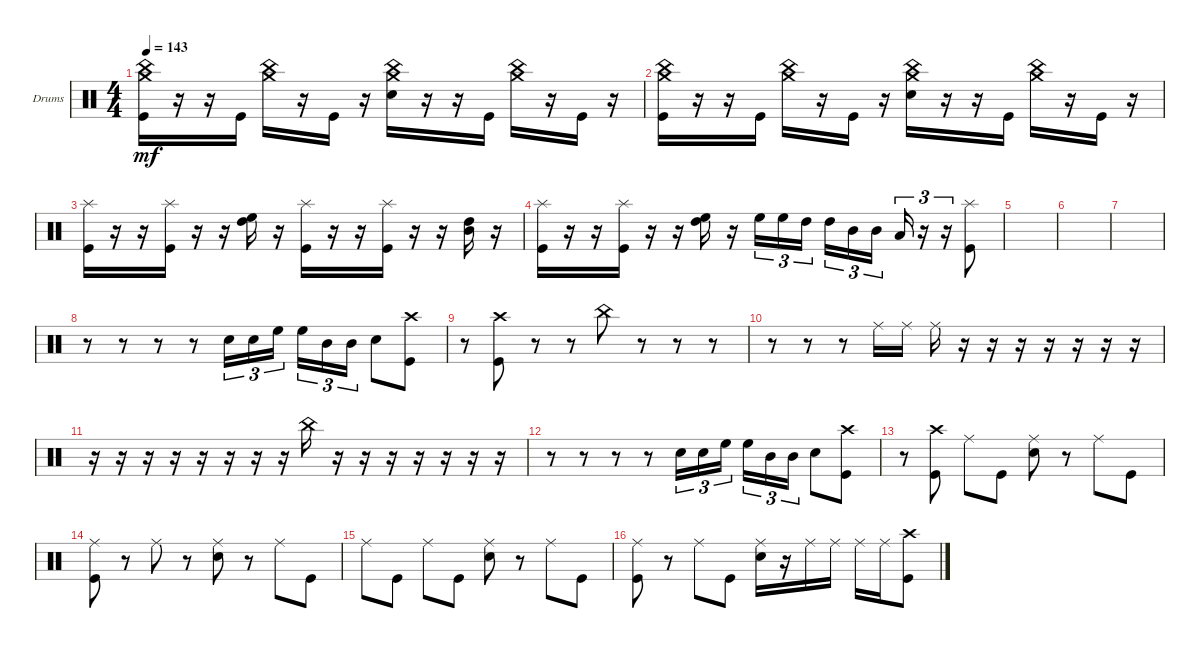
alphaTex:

\bracketExtendMode groupsimilarinstruments
\firstSystemTrackNameOrientation horizontal
\otherSystemsTrackNameOrientation horizontal
\track ("death drumz" "Drums") {instrument percussion}
\staff {score}
\articulation defaults
\ts (4 4)
\tempo 143
\clef neutral
\ks c
("Kick (hit)" "China (hit)" "Crash medium (hit)").16{dy mf} r.16 r.16 "Kick (hit)".16 ("China (hit)" "Crash medium (hit)").16 r.16 "Kick (hit)".16 r.16 ("Snare (hit) 2" "China (hit)" "Crash medium (hit)").16 r.16 r.16 "Kick (hit)".16 ("China (hit)" "Crash medium (hit)").16 r.16 "Kick (hit)".16 r.16 |
("Kick (hit)" "China (hit)" "Crash medium (hit)").16 r.16 r.16 "Kick (hit)".16 ("China (hit)" "Crash medium (hit)").16 r.16 "Kick (hit)".16 r.16 ("Snare (hit) 2" "China (hit)" "Crash medium (hit)").16 r.16 r.16 "Kick (hit)".16 ("China (hit)" "Crash medium (hit)").16 r.16 "Kick (hit)".16 r.16 |
("Kick (hit)" "Splash (hit)").16 r.16 r.16 ("Kick (hit)" "Splash (hit)").16 r.16 r.16 ("High Floor Tom (hit)" "High Tom (hit)").16 r.16 ("Splash (hit)" "Kick (hit)").16 r.16 r.16 ("Kick (hit)" "Splash (hit)").16 r.16 r.16 ("High Tom (hit)" "Mid Tom (hit)").16 r.16 |
("Kick (hit)" "Splash (hit)").16 r.16 r.16 ("Kick (hit)" "Splash (hit)").16 r.16 r.16 ("High Floor Tom (hit)" "High Tom (hit)").16 r.16 "High Floor Tom (hit)".16{tu (3 2)} "High Floor Tom (hit)".16{tu (3 2)} "High Tom (hit)".16{tu (3 2)} "High Tom (hit)".16{tu (3 2)} "Mid Tom (hit)".16{tu (3 2)} "Mid Tom (hit)".16{tu (3 2)} "Low Tom (hit)".16{tu (3 2)} r.16{tu (3 2)} r.16{tu (3 2)} ("Kick (hit)" "Splash (hit)").8 |
|
|
|
r.8 r.8 r.8 r.8 "Snare (hit) 2".16{tu (3 2)} "Snare (hit) 2".16{tu (3 2)} "High Floor Tom (hit)".16{tu (3 2)} "High Floor Tom (hit)".16{tu (3 2)} "Mid Tom (hit)".16{tu (3 2)} "Mid Tom (hit)".16{tu (3 2)} "Snare (hit) 2".8 ("Kick (hit)" "Crash high (hit)").8 |
r.8 ("Kick (hit)" "Crash high (hit)").8 r.8 r.8 "China (hit)".8 r.8 r.8 r.8 |
r.8 r.8 r.8 "Ride (middle)".16 "Ride (middle)".16 "Ride (middle)".16 r.16 r.16 r.16 r.16 r.16 r.16 r.16 |
r.16 r.16 r.16 r.16 r.16 r.16 r.16 r.16 "China (hit)".16 r.16 r.16 r.16 r.16 r.16 r.16 r.16 |
r.8 r.8 r.8 r.8 "Snare (hit) 2".16{tu (3 2)} "Snare (hit) 2".16{tu (3 2)} "High Floor Tom (hit)".16{tu (3 2)} "High Floor Tom (hit)".16{tu (3 2)} "Mid Tom (hit)".16{tu (3 2)} "Mid Tom (hit)".16{tu (3 2)} "Snare (hit) 2".8 ("Kick (hit)" "Crash high (hit)").8 |
r.8 ("Kick (hit)" "Crash high (hit)").8 "Ride (middle)".8 "Kick (hit)".8 ("Snare (hit) 2" "Ride (middle)").8 r.8 "Ride (middle)".8 "Kick (hit)".8 |
("Kick (hit)" "Ride (middle)").8 r.8 "Ride (middle)".8 r.8 ("Snare (hit) 2" "Ride (middle)").8 r.8 "Ride (middle)".8 "Kick (hit)".8 |
"Ride (middle)".8 "Kick (hit)".8 "Ride (middle)".8 "Kick (hit)".8 ("Snare (hit) 2" "Ride (middle)").8 r.8 "Ride (middle)".8 "Kick (hit)".8 |
("Kick (hit)" "Ride (middle)").8 r.8 "Ride (middle)".8 "Kick (hit)".8 ("Snare (hit) 2" "Ride (middle)").16 r.16 "Ride (middle)".16 "Ride (middle)".16 "Ride (middle)".16 "Ride (middle)".16 ("Kick (hit)" "Crash high (hit)").8
